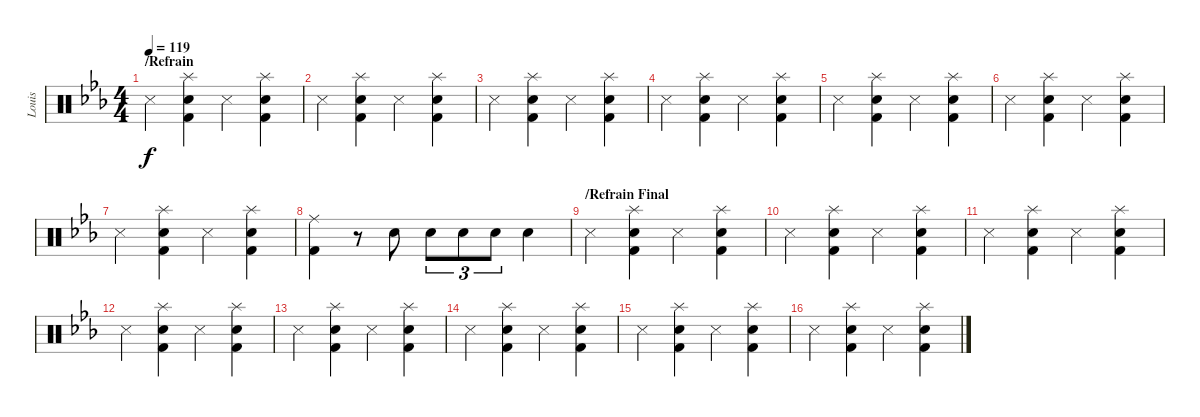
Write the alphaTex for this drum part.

\track ("Louis" "Louis") {instrument percussion}
\staff {score}
\articulation defaults
\ts (4 4)
\section ("" "/Refrain")
\tempo 119
\clef neutral
\ks cminor "Metronome (hit)".4{dy f}
("Splash (hit)" "Kick (hit) 2" "Snare (hit) 2").4 "Metronome (hit)".4 ("Splash (hit)" "Kick (hit) 2" "Snare (hit) 2").4 |
"Metronome (hit)".4 ("Splash (hit)" "Kick (hit) 2" "Snare (hit) 2").4 "Metronome (hit)".4 ("Splash (hit)" "Kick (hit) 2" "Snare (hit) 2").4 |
"Metronome (hit)".4 ("Splash (hit)" "Kick (hit) 2" "Snare (hit) 2").4 "Metronome (hit)".4 ("Splash (hit)" "Kick (hit) 2" "Snare (hit) 2").4 |
"Metronome (hit)".4 ("Splash (hit)" "Kick (hit) 2" "Snare (hit) 2").4 "Metronome (hit)".4 ("Splash (hit)" "Kick (hit) 2" "Snare (hit) 2").4 |
"Metronome (hit)".4 ("Splash (hit)" "Kick (hit) 2" "Snare (hit) 2").4 "Metronome (hit)".4 ("Splash (hit)" "Kick (hit) 2" "Snare (hit) 2").4 |
"Metronome (hit)".4 ("Splash (hit)" "Kick (hit) 2" "Snare (hit) 2").4 "Metronome (hit)".4 ("Splash (hit)" "Kick (hit) 2" "Snare (hit) 2").4 |
"Metronome (hit)".4 ("Splash (hit)" "Kick (hit) 2" "Snare (hit) 2").4 "Metronome (hit)".4 ("Splash (hit)" "Kick (hit) 2" "Snare (hit) 2").4 |
("Ride (middle)" "Kick (hit) 2").4 r.8 "Electric Snare (hit)".8 "Electric Snare (hit)".8{tu (3 2)} "Electric Snare (hit)".8{tu (3 2)} "Electric Snare (hit)".8{tu (3 2)} "Electric Snare (hit)".4 |
\section ("" "/Refrain Final")
"Metronome (hit)".4 ("Splash (hit)" "Kick (hit) 2" "Snare (hit) 2").4 "Metronome (hit)".4 ("Splash (hit)" "Kick (hit) 2" "Snare (hit) 2").4 |
"Metronome (hit)".4 ("Splash (hit)" "Kick (hit) 2" "Snare (hit) 2").4 "Metronome (hit)".4 ("Splash (hit)" "Kick (hit) 2" "Snare (hit) 2").4 |
"Metronome (hit)".4 ("Splash (hit)" "Kick (hit) 2" "Snare (hit) 2").4 "Metronome (hit)".4 ("Splash (hit)" "Kick (hit) 2" "Snare (hit) 2").4 |
"Metronome (hit)".4 ("Splash (hit)" "Kick (hit) 2" "Snare (hit) 2").4 "Metronome (hit)".4 ("Splash (hit)" "Kick (hit) 2" "Snare (hit) 2").4 |
"Metronome (hit)".4 ("Splash (hit)" "Kick (hit) 2" "Snare (hit) 2").4 "Metronome (hit)".4 ("Splash (hit)" "Kick (hit) 2" "Snare (hit) 2").4 |
"Metronome (hit)".4 ("Splash (hit)" "Kick (hit) 2" "Snare (hit) 2").4 "Metronome (hit)".4 ("Splash (hit)" "Kick (hit) 2" "Snare (hit) 2").4 |
"Metronome (hit)".4 ("Splash (hit)" "Kick (hit) 2" "Snare (hit) 2").4 "Metronome (hit)".4 ("Splash (hit)" "Kick (hit) 2" "Snare (hit) 2").4 |
"Metronome (hit)".4 ("Splash (hit)" "Kick (hit) 2" "Snare (hit) 2").4 "Metronome (hit)".4 ("Splash (hit)" "Kick (hit) 2" "Snare (hit) 2").4
